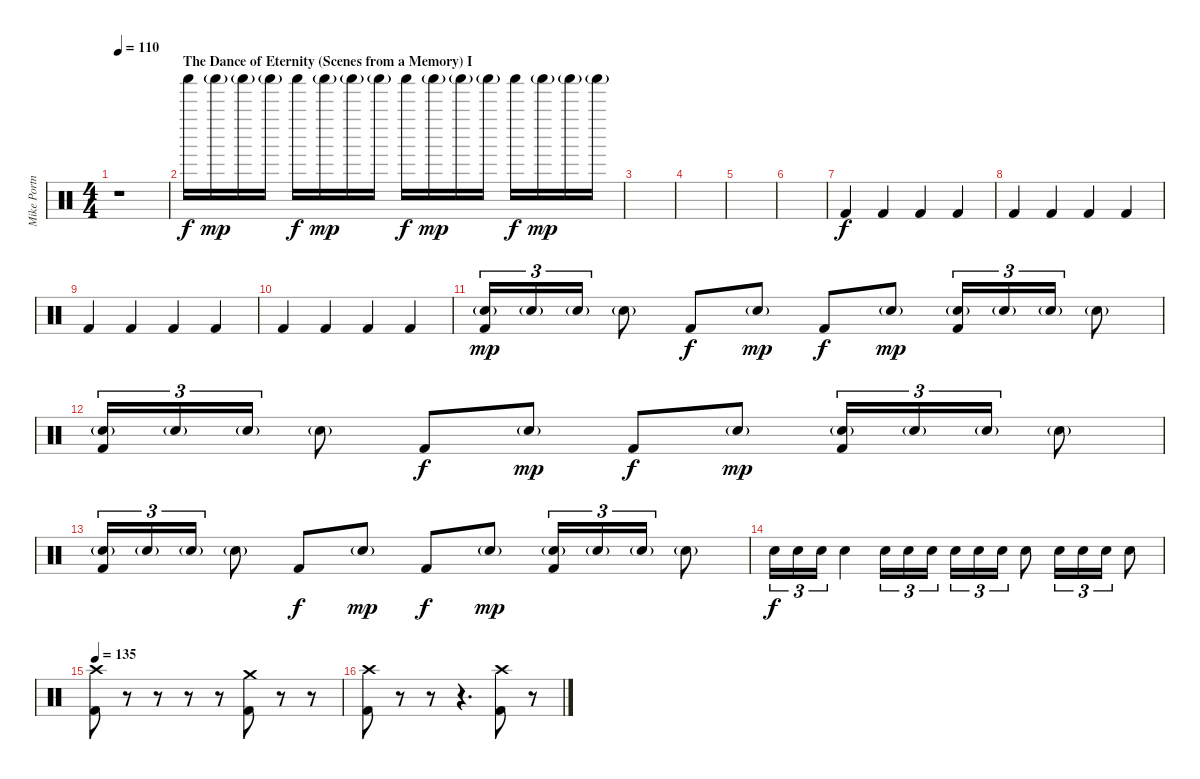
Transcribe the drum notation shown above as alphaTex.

\track ("Mike Portnoy Drums" "Mike Portn") {instrument percussion}
\staff {score}
\articulation defaults
\ts (4 4)
\tempo 110
\clef neutral
\ks c
r.1{dy f volume 4} |
\section ("" "The Dance of Eternity (Scenes from a Memory) I")
"Shaker (hit)".16{volume 13} "Shaker (hit)"{g}.16{dy mp} "Shaker (hit)"{g}.16 "Shaker (hit)"{g}.16 "Shaker (hit)".16{dy f} "Shaker (hit)"{g}.16{dy mp} "Shaker (hit)"{g}.16 "Shaker (hit)"{g}.16 "Shaker (hit)".16{dy f} "Shaker (hit)"{g}.16{dy mp} "Shaker (hit)"{g}.16 "Shaker (hit)"{g}.16 "Shaker (hit)".16{dy f} "Shaker (hit)"{g}.16{dy mp} "Shaker (hit)"{g}.16 "Shaker (hit)"{g}.16 |
|
|
|
|
"Kick (hit) 2".4{dy f} "Kick (hit) 2".4 "Kick (hit) 2".4 "Kick (hit) 2".4 |
"Kick (hit) 2".4 "Kick (hit) 2".4 "Kick (hit) 2".4 "Kick (hit) 2".4 |
"Kick (hit) 2".4 "Kick (hit) 2".4 "Kick (hit) 2".4 "Kick (hit) 2".4 |
"Kick (hit) 2".4 "Kick (hit) 2".4 "Kick (hit) 2".4 "Kick (hit) 2".4 |
("Snare (hit) 2"{g} "Kick (hit) 2").16{tu (3 2) dy mp volume 13} "Snare (hit) 2"{g}.16{tu (3 2)} "Snare (hit) 2"{g}.16{tu (3 2)} "Snare (hit) 2"{g}.8 "Kick (hit) 2".8{dy f} "Snare (hit) 2"{g}.8{dy mp} "Kick (hit) 2".8{dy f} "Snare (hit) 2"{g}.8{dy mp} ("Snare (hit) 2"{g} "Kick (hit) 2").16{tu (3 2)} "Snare (hit) 2"{g}.16{tu (3 2)} "Snare (hit) 2"{g}.16{tu (3 2)} "Snare (hit) 2"{g}.8 |
("Snare (hit) 2"{g} "Kick (hit) 2").16{tu (3 2)} "Snare (hit) 2"{g}.16{tu (3 2)} "Snare (hit) 2"{g}.16{tu (3 2)} "Snare (hit) 2"{g}.8 "Kick (hit) 2".8{dy f} "Snare (hit) 2"{g}.8{dy mp} "Kick (hit) 2".8{dy f} "Snare (hit) 2"{g}.8{dy mp} ("Snare (hit) 2"{g} "Kick (hit) 2").16{tu (3 2)} "Snare (hit) 2"{g}.16{tu (3 2)} "Snare (hit) 2"{g}.16{tu (3 2)} "Snare (hit) 2"{g}.8 |
("Snare (hit) 2"{g} "Kick (hit) 2").16{tu (3 2)} "Snare (hit) 2"{g}.16{tu (3 2)} "Snare (hit) 2"{g}.16{tu (3 2)} "Snare (hit) 2"{g}.8 "Kick (hit) 2".8{dy f} "Snare (hit) 2"{g}.8{dy mp} "Kick (hit) 2".8{dy f} "Snare (hit) 2"{g}.8{dy mp} ("Snare (hit) 2"{g} "Kick (hit) 2").16{tu (3 2)} "Snare (hit) 2"{g}.16{tu (3 2)} "Snare (hit) 2"{g}.16{tu (3 2)} "Snare (hit) 2"{g}.8 |
"Snare (hit) 2".16{tu (3 2) dy f} "Snare (hit) 2".16{tu (3 2)} "Snare (hit) 2".16{tu (3 2)} "Snare (hit) 2".4 "Snare (hit) 2".16{tu (3 2)} "Snare (hit) 2".16{tu (3 2)} "Snare (hit) 2".16{tu (3 2)} "Snare (hit) 2".16{tu (3 2)} "Snare (hit) 2".16{tu (3 2)} "Snare (hit) 2".16{tu (3 2)} "Snare (hit) 2".8 "Snare (hit) 2".16{tu (3 2)} "Snare (hit) 2".16{tu (3 2)} "Snare (hit) 2".16{tu (3 2)} "Snare (hit) 2".8 |
\tempo 135
("Crash high (hit)" "Kick (hit) 2").8 r.8 r.8 r.8 r.8 ("Crash medium (hit)" "Kick (hit) 2").8 r.8 r.8 |
("Crash high (hit)" "Kick (hit) 2").8 r.8 r.8 r.4{d} ("Crash high (hit)" "Kick (hit) 2").8 r.8
